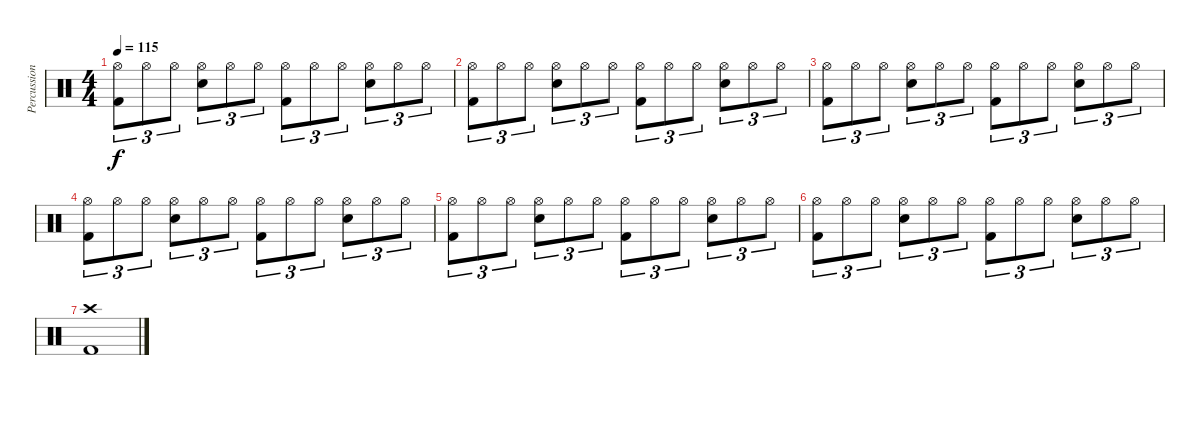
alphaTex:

\track ("Percussion" "Percussion") {instrument percussion}
\staff {score}
\articulation defaults
\ts (4 4)
\tempo 115
\clef neutral
\ks c
("Hi-Hat (open)" "Kick (hit) 2").8{tu (3 2) dy f} "Hi-Hat (open)".8{tu (3 2)} "Hi-Hat (open)".8{tu (3 2)} ("Hi-Hat (open)" "Snare (hit) 2").8{tu (3 2)} "Hi-Hat (open)".8{tu (3 2)} "Hi-Hat (open)".8{tu (3 2)} ("Hi-Hat (open)" "Kick (hit) 2").8{tu (3 2)} "Hi-Hat (open)".8{tu (3 2)} "Hi-Hat (open)".8{tu (3 2)} ("Hi-Hat (open)" "Snare (hit) 2").8{tu (3 2)} "Hi-Hat (open)".8{tu (3 2)} "Hi-Hat (open)".8{tu (3 2)} |
("Hi-Hat (open)" "Kick (hit) 2").8{tu (3 2)} "Hi-Hat (open)".8{tu (3 2)} "Hi-Hat (open)".8{tu (3 2)} ("Hi-Hat (open)" "Snare (hit) 2").8{tu (3 2)} "Hi-Hat (open)".8{tu (3 2)} "Hi-Hat (open)".8{tu (3 2)} ("Hi-Hat (open)" "Kick (hit) 2").8{tu (3 2)} "Hi-Hat (open)".8{tu (3 2)} "Hi-Hat (open)".8{tu (3 2)} ("Hi-Hat (open)" "Snare (hit) 2").8{tu (3 2)} "Hi-Hat (open)".8{tu (3 2)} "Hi-Hat (open)".8{tu (3 2)} |
("Hi-Hat (open)" "Kick (hit) 2").8{tu (3 2)} "Hi-Hat (open)".8{tu (3 2)} "Hi-Hat (open)".8{tu (3 2)} ("Hi-Hat (open)" "Snare (hit) 2").8{tu (3 2)} "Hi-Hat (open)".8{tu (3 2)} "Hi-Hat (open)".8{tu (3 2)} ("Hi-Hat (open)" "Kick (hit) 2").8{tu (3 2)} "Hi-Hat (open)".8{tu (3 2)} "Hi-Hat (open)".8{tu (3 2)} ("Hi-Hat (open)" "Snare (hit) 2").8{tu (3 2)} "Hi-Hat (open)".8{tu (3 2)} "Hi-Hat (open)".8{tu (3 2)} |
("Hi-Hat (open)" "Kick (hit) 2").8{tu (3 2)} "Hi-Hat (open)".8{tu (3 2)} "Hi-Hat (open)".8{tu (3 2)} ("Hi-Hat (open)" "Snare (hit) 2").8{tu (3 2)} "Hi-Hat (open)".8{tu (3 2)} "Hi-Hat (open)".8{tu (3 2)} ("Hi-Hat (open)" "Kick (hit) 2").8{tu (3 2)} "Hi-Hat (open)".8{tu (3 2)} "Hi-Hat (open)".8{tu (3 2)} ("Hi-Hat (open)" "Snare (hit) 2").8{tu (3 2)} "Hi-Hat (open)".8{tu (3 2)} "Hi-Hat (open)".8{tu (3 2)} |
("Hi-Hat (open)" "Kick (hit) 2").8{tu (3 2)} "Hi-Hat (open)".8{tu (3 2)} "Hi-Hat (open)".8{tu (3 2)} ("Hi-Hat (open)" "Snare (hit) 2").8{tu (3 2)} "Hi-Hat (open)".8{tu (3 2)} "Hi-Hat (open)".8{tu (3 2)} ("Hi-Hat (open)" "Kick (hit) 2").8{tu (3 2)} "Hi-Hat (open)".8{tu (3 2)} "Hi-Hat (open)".8{tu (3 2)} ("Hi-Hat (open)" "Snare (hit) 2").8{tu (3 2)} "Hi-Hat (open)".8{tu (3 2)} "Hi-Hat (open)".8{tu (3 2)} |
("Hi-Hat (open)" "Kick (hit) 2").8{tu (3 2)} "Hi-Hat (open)".8{tu (3 2)} "Hi-Hat (open)".8{tu (3 2)} ("Hi-Hat (open)" "Snare (hit) 2").8{tu (3 2)} "Hi-Hat (open)".8{tu (3 2)} "Hi-Hat (open)".8{tu (3 2)} ("Hi-Hat (open)" "Kick (hit) 2").8{tu (3 2)} "Hi-Hat (open)".8{tu (3 2)} "Hi-Hat (open)".8{tu (3 2)} ("Hi-Hat (open)" "Snare (hit) 2").8{tu (3 2)} "Hi-Hat (open)".8{tu (3 2)} "Hi-Hat (open)".8{tu (3 2)} |
("Crash high (hit)" "Kick (hit) 2").1
